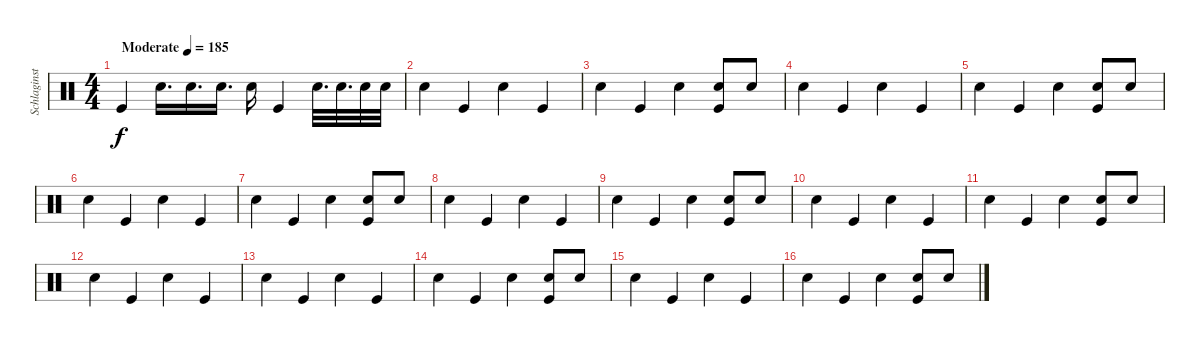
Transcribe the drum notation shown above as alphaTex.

\track ("Schlaginstrumente - Auswahl" "Schlaginst") {instrument percussion}
\staff {score}
\articulation defaults
\ts (4 4)
\tempo (185 "Moderate")
\clef neutral
\ks c "Kick (hit)".4{dy f} "Snare (hit) 2".16{d} "Snare (hit) 2".16{d} "Snare (hit) 2".16{d} "Snare (hit) 2".16 "Kick (hit)".4 "Snare (hit) 2".32{d} "Snare (hit) 2".32{d} "Snare (hit) 2".32 "Snare (hit) 2".32
|
"Snare (hit) 2".4 "Kick (hit)".4 "Snare (hit) 2".4 "Kick (hit)".4 |
"Snare (hit) 2".4 "Kick (hit)".4 "Snare (hit) 2".4 ("Kick (hit)" "Snare (hit) 2").8 "Snare (hit) 2".8 |
"Snare (hit) 2".4 "Kick (hit)".4 "Snare (hit) 2".4 "Kick (hit)".4 |
"Snare (hit) 2".4 "Kick (hit)".4 "Snare (hit) 2".4 ("Kick (hit)" "Snare (hit) 2").8 "Snare (hit) 2".8 |
"Snare (hit) 2".4 "Kick (hit)".4 "Snare (hit) 2".4 "Kick (hit)".4 |
"Snare (hit) 2".4 "Kick (hit)".4 "Snare (hit) 2".4 ("Kick (hit)" "Snare (hit) 2").8 "Snare (hit) 2".8 |
"Snare (hit) 2".4 "Kick (hit)".4 "Snare (hit) 2".4 "Kick (hit)".4 |
"Snare (hit) 2".4 "Kick (hit)".4 "Snare (hit) 2".4 ("Kick (hit)" "Snare (hit) 2").8 "Snare (hit) 2".8 |
"Snare (hit) 2".4 "Kick (hit)".4 "Snare (hit) 2".4 "Kick (hit)".4 |
"Snare (hit) 2".4 "Kick (hit)".4 "Snare (hit) 2".4 ("Kick (hit)" "Snare (hit) 2").8 "Snare (hit) 2".8 |
"Snare (hit) 2".4 "Kick (hit)".4 "Snare (hit) 2".4 "Kick (hit)".4 |
"Snare (hit) 2".4 "Kick (hit)".4 "Snare (hit) 2".4 "Kick (hit)".4 |
"Snare (hit) 2".4 "Kick (hit)".4 "Snare (hit) 2".4 ("Kick (hit)" "Snare (hit) 2").8 "Snare (hit) 2".8 |
"Snare (hit) 2".4 "Kick (hit)".4 "Snare (hit) 2".4 "Kick (hit)".4 |
"Snare (hit) 2".4 "Kick (hit)".4 "Snare (hit) 2".4 ("Kick (hit)" "Snare (hit) 2").8 "Snare (hit) 2".8
